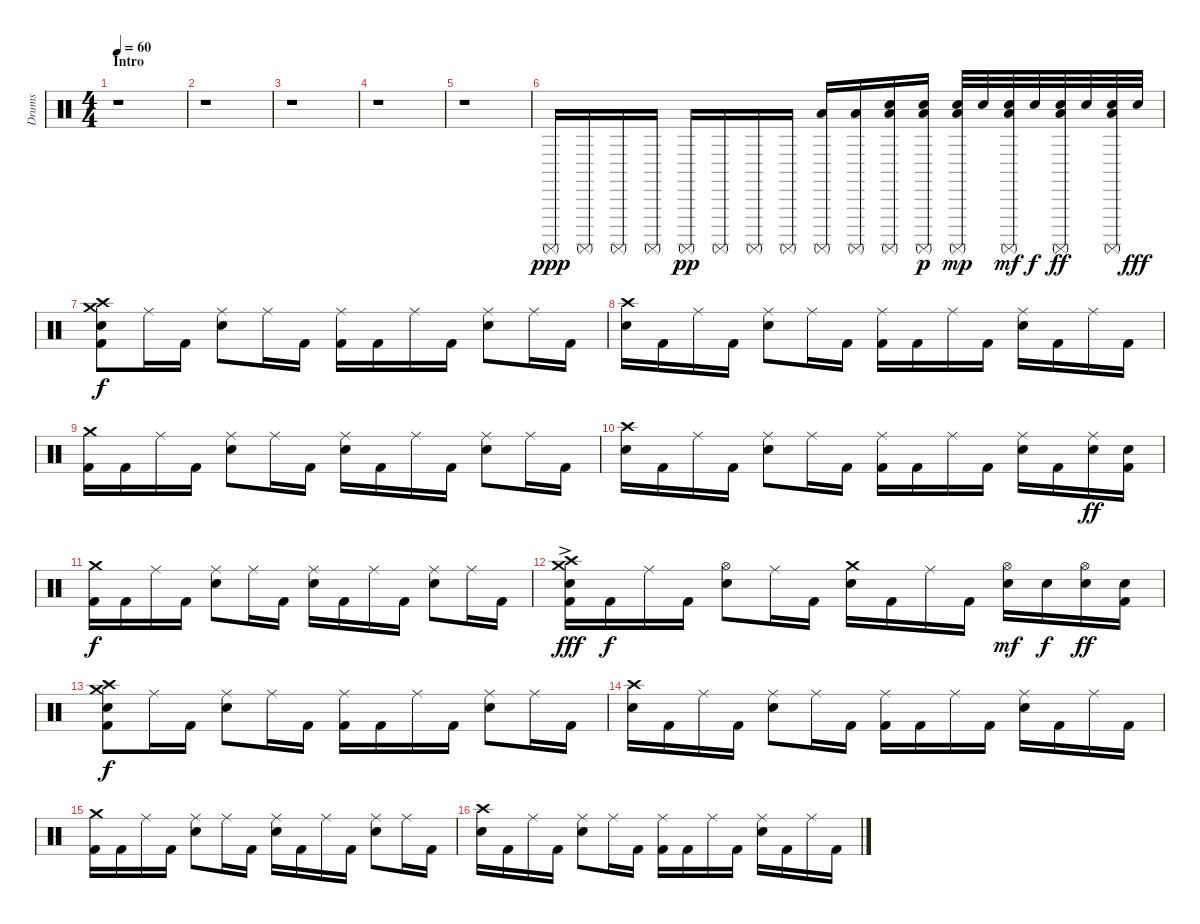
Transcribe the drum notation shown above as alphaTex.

\track ("Drums" "Drums") {instrument percussion}
\staff {score}
\articulation defaults
\ts (4 4)
\section ("" "Intro")
\tempo 60
\clef neutral
\ks c
r.1{dy ppp} |
r.1 |
r.1 |
r.1 |
r.1 |
"Surdo (mute)".16 "Surdo (mute)".16 "Surdo (mute)".16 "Surdo (mute)".16 "Surdo (mute)".16{dy pp} "Surdo (mute)".16 "Surdo (mute)".16 "Surdo (mute)".16 ("Low Tom (hit)" "Surdo (mute)").16 ("Low Tom (hit)" "Surdo (mute)").16 ("Snare (hit) 2" "Low Tom (hit)" "Surdo (mute)").16 ("Snare (hit) 2" "Low Tom (hit)" "Surdo (mute)").16{dy p} ("Snare (hit) 2" "Low Tom (hit)" "Surdo (mute)").32{dy mp} "Snare (hit) 2".32 ("Snare (hit) 2" "Low Tom (hit)" "Surdo (mute)").32{dy mf} "Snare (hit) 2".32{dy f} ("Snare (hit) 2" "Low Tom (hit)" "Surdo (mute)").32{dy ff} "Snare (hit) 2".32 ("Snare (hit) 2" "Low Tom (hit)" "Surdo (mute)").32 "Snare (hit) 2".32{dy fff} |
("Crash medium (hit)" "Crash high (hit)" "Snare (hit) 2" "Kick (hit) 2").8{dy f} "Ride (middle)".16 "Kick (hit) 2".16 ("Ride (middle)" "Snare (hit) 2").8 "Ride (middle)".16 "Kick (hit) 2".16 ("Ride (middle)" "Kick (hit) 2").16 "Kick (hit) 2".16 "Ride (middle)".16 "Kick (hit) 2".16 ("Ride (middle)" "Snare (hit) 2").8 "Ride (middle)".16 "Kick (hit) 2".16 |
("Crash high (hit)" "Snare (hit) 2").16 "Kick (hit) 2".16 "Ride (middle)".16 "Kick (hit) 2".16 ("Ride (middle)" "Snare (hit) 2").8 "Ride (middle)".16 "Kick (hit) 2".16 ("Ride (middle)" "Kick (hit) 2").16 "Kick (hit) 2".16 "Ride (middle)".16 "Kick (hit) 2".16 ("Ride (middle)" "Snare (hit) 2").16 "Kick (hit) 2".16 "Ride (middle)".16 "Kick (hit) 2".16 |
("Crash medium (hit)" "Kick (hit) 2").16 "Kick (hit) 2".16 "Ride (middle)".16 "Kick (hit) 2".16 ("Ride (middle)" "Snare (hit) 2").8 "Ride (middle)".16 "Kick (hit) 2".16 ("Ride (middle)" "Snare (hit) 2").16 "Kick (hit) 2".16 "Ride (middle)".16 "Kick (hit) 2".16 ("Ride (middle)" "Snare (hit) 2").8 "Ride (middle)".16 "Kick (hit) 2".16 |
("Crash high (hit)" "Snare (hit) 2").16 "Kick (hit) 2".16 "Ride (middle)".16 "Kick (hit) 2".16 ("Ride (middle)" "Snare (hit) 2").8 "Ride (middle)".16 "Kick (hit) 2".16 ("Ride (middle)" "Kick (hit) 2").16 "Kick (hit) 2".16 "Ride (middle)".16 "Kick (hit) 2".16 ("Ride (middle)" "Snare (hit) 2").16 "Kick (hit) 2".16 ("Ride (middle)" "Snare (hit) 2").16{dy ff} ("Snare (hit) 2" "Kick (hit) 2").16 |
("Crash medium (hit)" "Kick (hit) 2").16{dy f} "Kick (hit) 2".16 "Ride (middle)".16 "Kick (hit) 2".16 ("Ride (middle)" "Snare (hit) 2").8 "Ride (middle)".16 "Kick (hit) 2".16 ("Ride (middle)" "Snare (hit) 2").16 "Kick (hit) 2".16 "Ride (middle)".16 "Kick (hit) 2".16 ("Ride (middle)" "Snare (hit) 2").8 "Ride (middle)".16 "Kick (hit) 2".16 |
("Crash medium (hit)"{ac} "Crash high (hit)"{ac} "Snare (hit) 2" "Kick (hit) 2").16{dy fff} "Kick (hit) 2".16{dy f} "Ride (middle)".16 "Kick (hit) 2".16 ("Hi-Hat (open)" "Snare (hit) 2").8 "Ride (middle)".16 "Kick (hit) 2".16 ("Crash medium (hit)" "Snare (hit) 2").16 "Kick (hit) 2".16 "Ride (middle)".16 "Kick (hit) 2".16 ("Hi-Hat (open)" "Snare (hit) 2").16{dy mf} "Snare (hit) 2".16{dy f} ("Hi-Hat (open)" "Snare (hit) 2").16{dy ff} ("Snare (hit) 2" "Kick (hit) 2").16 |
("Crash medium (hit)" "Crash high (hit)" "Snare (hit) 2" "Kick (hit) 2").8{dy f} "Ride (middle)".16 "Kick (hit) 2".16 ("Ride (middle)" "Snare (hit) 2").8 "Ride (middle)".16 "Kick (hit) 2".16 ("Ride (middle)" "Kick (hit) 2").16 "Kick (hit) 2".16 "Ride (middle)".16 "Kick (hit) 2".16 ("Ride (middle)" "Snare (hit) 2").8 "Ride (middle)".16 "Kick (hit) 2".16 |
("Crash high (hit)" "Snare (hit) 2").16 "Kick (hit) 2".16 "Ride (middle)".16 "Kick (hit) 2".16 ("Ride (middle)" "Snare (hit) 2").8 "Ride (middle)".16 "Kick (hit) 2".16 ("Ride (middle)" "Kick (hit) 2").16 "Kick (hit) 2".16 "Ride (middle)".16 "Kick (hit) 2".16 ("Ride (middle)" "Snare (hit) 2").16 "Kick (hit) 2".16 "Ride (middle)".16 "Kick (hit) 2".16 |
("Crash medium (hit)" "Kick (hit) 2").16 "Kick (hit) 2".16 "Ride (middle)".16 "Kick (hit) 2".16 ("Ride (middle)" "Snare (hit) 2").8 "Ride (middle)".16 "Kick (hit) 2".16 ("Ride (middle)" "Snare (hit) 2").16 "Kick (hit) 2".16 "Ride (middle)".16 "Kick (hit) 2".16 ("Ride (middle)" "Snare (hit) 2").8 "Ride (middle)".16 "Kick (hit) 2".16 |
("Crash high (hit)" "Snare (hit) 2").16 "Kick (hit) 2".16 "Ride (middle)".16 "Kick (hit) 2".16 ("Ride (middle)" "Snare (hit) 2").8 "Ride (middle)".16 "Kick (hit) 2".16 ("Ride (middle)" "Kick (hit) 2").16 "Kick (hit) 2".16 "Ride (middle)".16 "Kick (hit) 2".16 ("Ride (middle)" "Snare (hit) 2").16 "Kick (hit) 2".16 "Ride (middle)".16 "Kick (hit) 2".16
